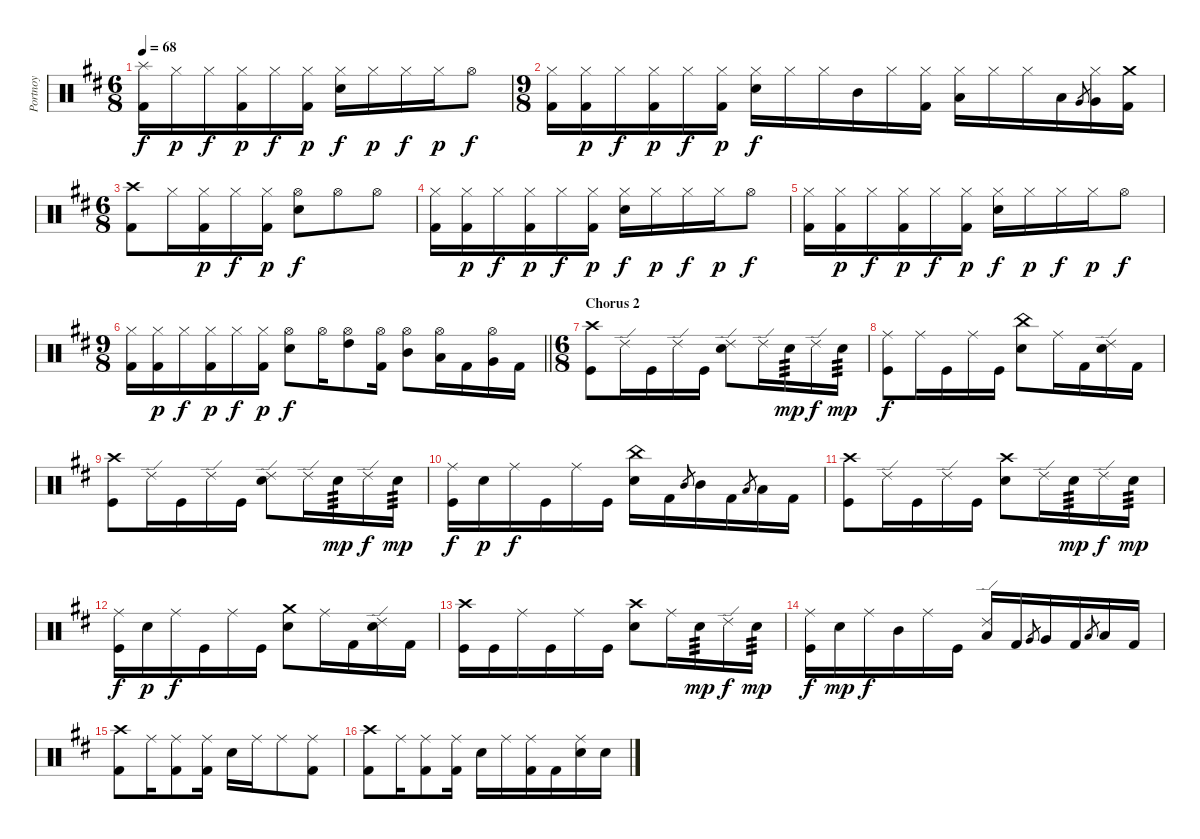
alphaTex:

\track ("Portnoy" "Portnoy") {instrument percussion}
\staff {score}
\articulation defaults
\ts (6 8)
\tempo 68
\clef neutral
\ks d
("Splash (hit)" "Kick (hit) 2").16{dy f} "Hi-Hat (closed)".16{dy p} "Hi-Hat (closed)".16{dy f} ("Kick (hit) 2" "Hi-Hat (closed)").16{dy p} "Hi-Hat (closed)".16{dy f} ("Hi-Hat (closed)" "Kick (hit) 2").16{dy p} ("Hi-Hat (closed)" "Snare (hit) 2").16{dy f} "Hi-Hat (closed)".16{dy p} "Hi-Hat (closed)".16{dy f} "Hi-Hat (closed)".16{dy p} "Hi-Hat (open)".8{dy f} |
\ts (9 8)
("Hi-Hat (closed)" "Kick (hit) 2").16 ("Kick (hit) 2" "Hi-Hat (closed)").16{dy p} "Hi-Hat (closed)".16{dy f} ("Kick (hit) 2" "Hi-Hat (closed)").16{dy p} "Hi-Hat (closed)".16{dy f} ("Hi-Hat (closed)" "Kick (hit) 2").16{dy p} ("Snare (hit) 2" "Hi-Hat (closed)").16{dy f} "Hi-Hat (closed)".16 "Hi-Hat (closed)".16 "Mid Tom (hit)".16 "Hi-Hat (closed)".16 ("Hi-Hat (closed)" "Kick (hit) 2").16 ("Low Tom (hit)" "Hi-Hat (closed)").16 "Hi-Hat (closed)".16 "Hi-Hat (closed)".16 "Low Tom (hit)".16 "Very Low Tom (hit)".8{gr} ("Hi-Hat (closed)" "Very Low Tom (hit)").16 ("Kick (hit) 2" "Crash medium (hit)").16 |
\ts (6 8)
("Crash high (hit)" "Kick (hit) 2").8 "Hi-Hat (closed)".16 ("Kick (hit) 2" "Hi-Hat (closed)").16{dy p} "Hi-Hat (closed)".16{dy f} ("Hi-Hat (closed)" "Kick (hit) 2").16{dy p} ("Hi-Hat (open)" "Snare (hit) 2").8{dy f} "Hi-Hat (open)".8 "Hi-Hat (open)".8 |
("Hi-Hat (closed)" "Kick (hit) 2").16 ("Kick (hit) 2" "Hi-Hat (closed)").16{dy p} "Hi-Hat (closed)".16{dy f} ("Kick (hit) 2" "Hi-Hat (closed)").16{dy p} "Hi-Hat (closed)".16{dy f} ("Hi-Hat (closed)" "Kick (hit) 2").16{dy p} ("Hi-Hat (closed)" "Snare (hit) 2").16{dy f} "Hi-Hat (closed)".16{dy p} "Hi-Hat (closed)".16{dy f} "Hi-Hat (closed)".16{dy p} "Hi-Hat (open)".8{dy f} |
("Hi-Hat (closed)" "Kick (hit) 2").16 ("Kick (hit) 2" "Hi-Hat (closed)").16{dy p} "Hi-Hat (closed)".16{dy f} ("Kick (hit) 2" "Hi-Hat (closed)").16{dy p} "Hi-Hat (closed)".16{dy f} ("Hi-Hat (closed)" "Kick (hit) 2").16{dy p} ("Hi-Hat (closed)" "Snare (hit) 2").16{dy f} "Hi-Hat (closed)".16{dy p} "Hi-Hat (closed)".16{dy f} "Hi-Hat (closed)".16{dy p} "Hi-Hat (open)".8{dy f} |
\ts (9 8)
\barLineRight lightlight
("Hi-Hat (closed)" "Kick (hit) 2").16 ("Kick (hit) 2" "Hi-Hat (closed)").16{dy p} "Hi-Hat (closed)".16{dy f} ("Kick (hit) 2" "Hi-Hat (closed)").16{dy p} "Hi-Hat (closed)".16{dy f} ("Hi-Hat (closed)" "Kick (hit) 2").16{dy p} ("Snare (hit) 2" "Hi-Hat (open)").8{dy f} "Hi-Hat (open)".16 ("Hi-Hat (open)" "High Tom (hit)").8 ("Hi-Hat (open)" "Kick (hit) 2").16 ("Hi-Hat (open)" "Mid Tom (hit)").8 ("Hi-Hat (open)" "Low Tom (hit)").16 "Kick (hit) 2".16 ("Hi-Hat (open)" "Very Low Tom (hit)").16 "Kick (hit) 2".16 |
\ts (6 8)
\section ("" "Chorus 2")
("Kick (hit)" "Crash high (hit)").8 "Ride (edge) 2".16 "Kick (hit)".16 "Ride (edge) 2".16 "Kick (hit)".16 ("Snare (hit) 2" "Ride (edge) 2").8 "Ride (edge) 2".16 "Snare (hit) 2".16{tp 3 dy mp} "Ride (edge) 2".16{dy f} "Snare (hit) 2".16{tp 3 dy mp} |
("Kick (hit)" "Ride (middle)").8{dy f} "Ride (middle)".16 "Kick (hit)".16 "Ride (middle)".16 "Kick (hit)".16 ("Snare (hit) 2" "China (hit)").8 "Ride (middle)".16 "Kick (hit) 2".16 ("Ride (edge) 2" "Snare (hit) 2").16 "Kick (hit) 2".16 |
("Kick (hit)" "Crash high (hit)").8 "Ride (edge) 2".16 "Kick (hit)".16 "Ride (edge) 2".16 "Kick (hit)".16 ("Snare (hit) 2" "Ride (edge) 2").8 "Ride (edge) 2".16 "Snare (hit) 2".16{tp 3 dy mp} "Ride (edge) 2".16{dy f} "Snare (hit) 2".16{tp 3 dy mp} |
("Kick (hit)" "Ride (middle)").16{dy f} "Snare (hit) 2".16{dy p} "Ride (middle)".16{dy f} "Kick (hit)".16 "Ride (middle)".16 "Kick (hit)".16 ("China (hit)" "Snare (hit) 2").16 "Kick (hit) 2".16 "Mid Tom (hit)".8{gr} "Mid Tom (hit)".16 "Kick (hit) 2".16 "Low Tom (hit)".8{gr} "Low Tom (hit)".16 "Kick (hit) 2".16 |
("Kick (hit)" "Crash high (hit)").8 "Ride (edge) 2".16 "Kick (hit)".16 "Ride (edge) 2".16 "Kick (hit)".16 ("Snare (hit) 2" "Crash high (hit)").8 "Ride (edge) 2".16 "Snare (hit) 2".16{tp 3 dy mp} "Ride (edge) 2".16{dy f} "Snare (hit) 2".16{tp 3 dy mp} |
("Kick (hit)" "Ride (middle)").16{dy f} "Snare (hit) 2".16{dy p} "Ride (middle)".16{dy f} "Kick (hit)".16 "Ride (middle)".16 "Kick (hit)".16 ("Snare (hit) 2" "Crash medium (hit)").8 "Ride (middle)".16 "Kick (hit) 2".16 ("Ride (edge) 2" "Snare (hit) 2").16 "Kick (hit) 2".16 |
("Kick (hit)" "Crash high (hit)").16 "Kick (hit)".16 "Ride (middle)".16 "Kick (hit)".16 "Ride (middle)".16 "Kick (hit)".16 ("Electric Snare (hit)" "Crash high (hit)").8 "Ride (middle)".16 "Snare (hit) 2".16{tp 3 dy mp} "Ride (edge) 2".16{dy f} "Snare (hit) 2".16{tp 3 dy mp} |
("Kick (hit)" "Ride (middle)").16{dy f} "Snare (hit) 2".16{dy mp} "Ride (middle)".16{dy f} "Mid Tom (hit)".16 "Ride (middle)".16 "Kick (hit)".16 ("Low Tom (hit)" "Ride (edge) 2").16 "Kick (hit) 2".16 "Very Low Tom (hit)".8{gr} "Very Low Tom (hit)".16 "Kick (hit) 2".16 "Low Floor Tom (hit)".8{gr} "Low Floor Tom (hit)".16 "Kick (hit) 2".16 |
("Crash high (hit)" "Kick (hit) 2").8 "Ride (middle)".16 ("Ride (middle)" "Kick (hit) 2").8 ("Ride (middle)" "Kick (hit) 2").16 "Snare (hit) 2".16 "Ride (middle)".16 "Ride (middle)".8 ("Ride (middle)" "Kick (hit) 2").8 |
("Crash high (hit)" "Kick (hit) 2").8 "Ride (middle)".16 ("Ride (middle)" "Kick (hit) 2").8 ("Ride (middle)" "Kick (hit) 2").16 "Snare (hit) 2".16 "Ride (middle)".16 ("Ride (middle)" "Kick (hit) 2").16 "Kick (hit) 2".16 ("Ride (middle)" "Snare (hit) 2").16 "Snare (hit) 2".16
